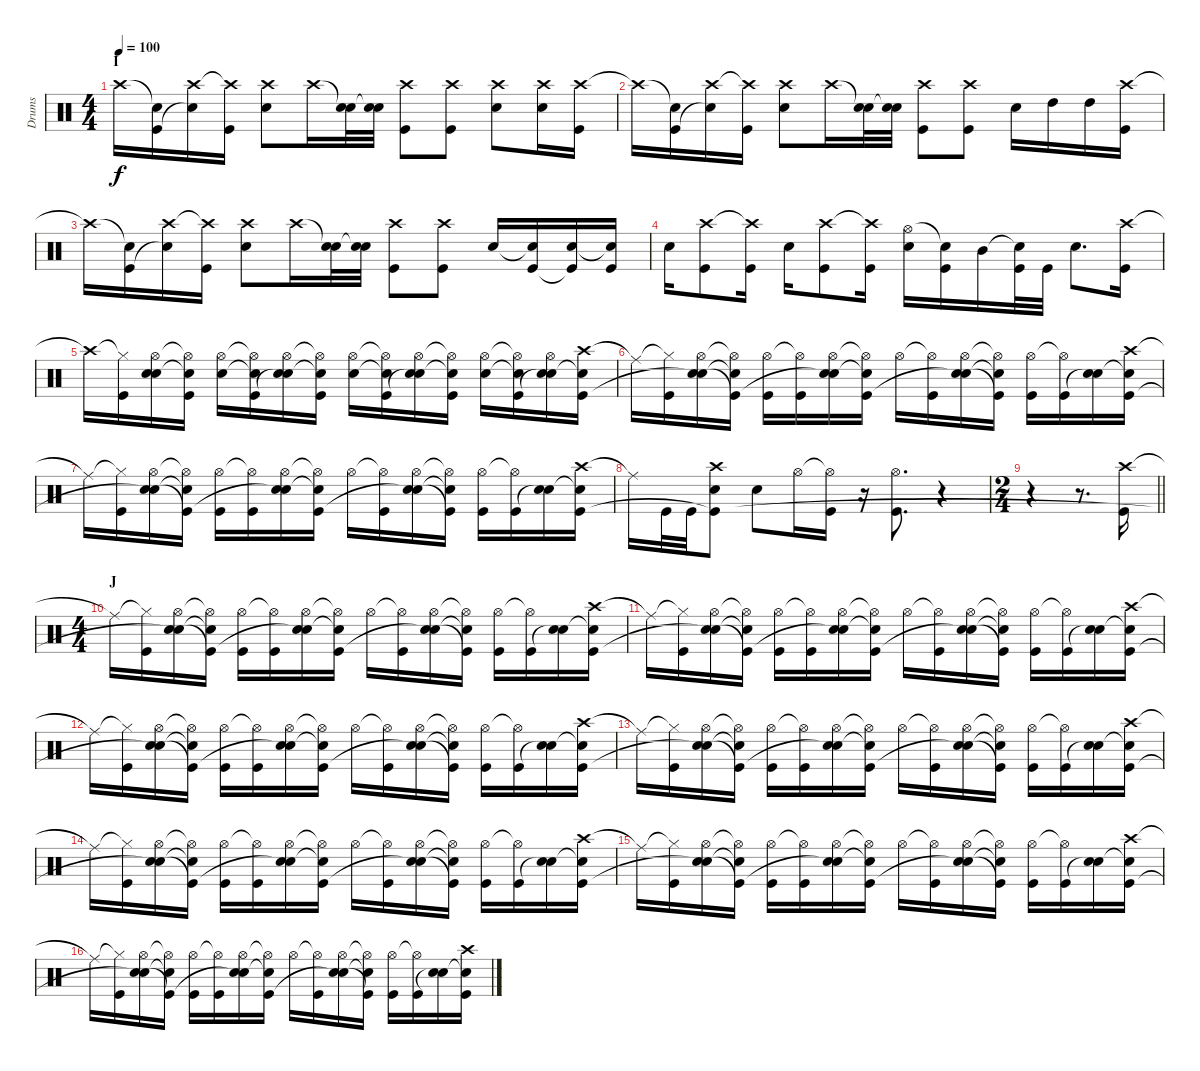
\track ("Drums" "Drums") {instrument percussion}
\staff {score}
\articulation defaults
\ts (4 4)
\section ("" "I")
\tempo 100
\clef neutral
\ks c "Crash high (hit)".16{dy f}
("Snare (hit)"{t} "Kick (hit)").16 ("Crash high (hit)" "Snare (hit)"{t}).16 ("Crash high (hit)"{t} "Kick (hit)").16 ("Crash high (hit)" "Snare (hit) 2").8 "Crash high (hit)".16 ("Snare (hit)"{t} "Snare (hit) 2").32 ("Snare (hit)"{t} "Snare (hit) 2").32 ("Crash high (hit)" "Kick (hit)").8 ("Crash high (hit)" "Kick (hit)").8 ("Crash high (hit)" "Snare (hit) 2").8 ("Crash high (hit)" "Snare (hit) 2").16 ("Crash high (hit)" "Kick (hit)").16 |
"Crash high (hit)"{t}.16 ("Snare (hit)"{t} "Kick (hit)").16 ("Crash high (hit)" "Snare (hit)"{t}).16 ("Crash high (hit)"{t} "Kick (hit)").16 ("Crash high (hit)" "Snare (hit) 2").8 "Crash high (hit)".16 ("Snare (hit)"{t} "Snare (hit) 2").32 ("Snare (hit)"{t} "Snare (hit) 2").32 ("Crash high (hit)" "Kick (hit)").8 ("Crash high (hit)" "Kick (hit)").8 "Snare (hit) 2".16 "High Tom (hit)".16 "High Tom (hit)".16 ("Crash high (hit)" "Kick (hit)").16 |
"Crash high (hit)"{t}.16 ("Snare (hit)"{t} "Kick (hit)").16 ("Crash high (hit)" "Snare (hit)"{t}).16 ("Crash high (hit)"{t} "Kick (hit)").16 ("Crash high (hit)" "Snare (hit) 2").8 "Crash high (hit)".16 ("Snare (hit)"{t} "Snare (hit) 2").32 ("Snare (hit)"{t} "Snare (hit) 2").32 ("Crash high (hit)" "Kick (hit)").8 ("Crash high (hit)" "Kick (hit)").8 "Snare (hit) 2".16 ("Snare (hit) 2"{t} "Kick (hit)").16 ("Snare (hit) 2" "Kick (hit)"{t}).16 ("Snare (hit) 2"{t} "Kick (hit)").16 |
"Snare (hit) 2".16 ("Crash high (hit)" "Kick (hit)").8 ("Crash high (hit)"{t} "Kick (hit)").16 "Snare (hit) 2".16 ("Crash high (hit)" "Kick (hit)").8 ("Crash high (hit)"{t} "Kick (hit)").16 ("Hi-Hat (open)" "Snare (hit) 2").16 ("Snare (hit)"{t} "Kick (hit)").16 "Mid Tom (hit)".16 ("Snare (hit)"{t} "Kick (hit)").32 "Kick (hit)".32 "Snare (hit) 2".8{d} ("Crash high (hit)" "Kick (hit)").16 |
"Crash high (hit)"{t}.16 ("Hi-Hat (closed)"{t} "Kick (hit)").16 ("Hi-Hat (open)" "Snare (hit) 2" "Snare (hit)").16 ("Hi-Hat (open)"{t} "Snare (hit) 2"{t} "Kick (hit)").16 ("Hi-Hat (open)" "Snare (hit) 2").16 ("Hi-Hat (open)"{t} "Snare (hit) 2"{t} "Kick (hit)").16 ("Hi-Hat (open)" "Snare (hit) 2" "Snare (hit)"{t}).16 ("Hi-Hat (open)"{t} "Snare (hit) 2"{t} "Kick (hit)").16 ("Hi-Hat (open)" "Snare (hit) 2").16 ("Hi-Hat (open)"{t} "Snare (hit) 2"{t} "Kick (hit)").16 ("Hi-Hat (open)" "Snare (hit) 2" "Snare (hit)"{t}).16 ("Hi-Hat (open)"{t} "Snare (hit) 2"{t} "Kick (hit)").16 ("Hi-Hat (open)" "Snare (hit) 2").16 ("Hi-Hat (open)"{t} "Snare (hit) 2"{t} "Kick (hit)").16 ("Hi-Hat (open)" "Snare (hit) 2" "Snare (hit)"{t}).16 ("Crash high (hit)" "Snare (hit) 2"{t} "Kick (hit)").16 |
"Ride (middle)"{t}.16 ("Hi-Hat (closed)"{t} "Kick (hit)").16 ("Hi-Hat (open)" "Snare (hit) 2" "Snare (hit)"{t}).16 ("Hi-Hat (open)"{t} "Snare (hit) 2"{t} "Kick (hit)"{t}).16 ("Hi-Hat (open)" "Kick (hit)").16 ("Hi-Hat (open)"{t} "Kick (hit)").16 ("Hi-Hat (open)" "Snare (hit) 2" "Snare (hit)"{t}).16 ("Hi-Hat (open)"{t} "Snare (hit) 2"{t} "Kick (hit)").16 "Hi-Hat (open)".16 ("Hi-Hat (open)"{t} "Kick (hit)").16 ("Hi-Hat (open)" "Snare (hit) 2" "Snare (hit)"{t}).16 ("Hi-Hat (open)"{t} "Snare (hit) 2"{t} "Kick (hit)"{t}).16 ("Hi-Hat (open)" "Kick (hit)").16 ("Hi-Hat (open)"{t} "Kick (hit)").16 ("Snare (hit) 2" "Snare (hit)"{t}).16 ("Crash high (hit)" "Snare (hit) 2"{t} "Kick (hit)").16 |
"Ride (middle)"{t}.16 ("Hi-Hat (closed)"{t} "Kick (hit)").16 ("Hi-Hat (open)" "Snare (hit) 2" "Snare (hit)"{t}).16 ("Hi-Hat (open)"{t} "Snare (hit) 2"{t} "Kick (hit)"{t}).16 ("Hi-Hat (open)" "Kick (hit)").16 ("Hi-Hat (open)"{t} "Kick (hit)").16 ("Hi-Hat (open)" "Snare (hit) 2" "Snare (hit)"{t}).16 ("Hi-Hat (open)"{t} "Snare (hit) 2"{t} "Kick (hit)").16 "Hi-Hat (open)".16 ("Hi-Hat (open)"{t} "Kick (hit)").16 ("Hi-Hat (open)" "Snare (hit) 2" "Snare (hit)"{t}).16 ("Hi-Hat (open)"{t} "Snare (hit) 2"{t} "Kick (hit)"{t}).16 ("Hi-Hat (open)" "Kick (hit)").16 ("Hi-Hat (open)"{t} "Kick (hit)").16 ("Snare (hit) 2" "Snare (hit)"{t}).16 ("Crash high (hit)" "Snare (hit) 2"{t} "Kick (hit)").16 |
"Ride (middle)"{t}.16 "Kick (hit)".32 "Kick (hit)".32 ("Crash high (hit)" "Snare (hit) 2" "Kick (hit)"{t}).8 "Snare (hit) 2".8 "Hi-Hat (open)".16 ("Hi-Hat (open)"{t} "Kick (hit)").16 r.16 ("Hi-Hat (open)" "Kick (hit)").8{d} r.4 |
\ts (2 4)
\barLineRight lightlight
r.4 r.8{d} ("Crash high (hit)" "Kick (hit)").16 |
\ts (4 4)
\section ("" "J")
"Ride (middle)"{t}.16 ("Hi-Hat (closed)"{t} "Kick (hit)").16 ("Hi-Hat (open)" "Snare (hit) 2" "Snare (hit)"{t}).16 ("Hi-Hat (open)"{t} "Snare (hit) 2"{t} "Kick (hit)"{t}).16 ("Hi-Hat (open)" "Kick (hit)").16 ("Hi-Hat (open)"{t} "Kick (hit)").16 ("Hi-Hat (open)" "Snare (hit) 2" "Snare (hit)"{t}).16 ("Hi-Hat (open)"{t} "Snare (hit) 2"{t} "Kick (hit)").16 "Hi-Hat (open)".16 ("Hi-Hat (open)"{t} "Kick (hit)").16 ("Hi-Hat (open)" "Snare (hit) 2" "Snare (hit)"{t}).16 ("Hi-Hat (open)"{t} "Snare (hit) 2"{t} "Kick (hit)"{t}).16 ("Hi-Hat (open)" "Kick (hit)").16 ("Hi-Hat (open)"{t} "Kick (hit)").16 ("Snare (hit) 2" "Snare (hit)"{t}).16 ("Crash high (hit)" "Snare (hit) 2"{t} "Kick (hit)").16 |
"Ride (middle)"{t}.16 ("Hi-Hat (closed)"{t} "Kick (hit)").16 ("Hi-Hat (open)" "Snare (hit) 2" "Snare (hit)"{t}).16 ("Hi-Hat (open)"{t} "Snare (hit) 2"{t} "Kick (hit)"{t}).16 ("Hi-Hat (open)" "Kick (hit)").16 ("Hi-Hat (open)"{t} "Kick (hit)").16 ("Hi-Hat (open)" "Snare (hit) 2" "Snare (hit)"{t}).16 ("Hi-Hat (open)"{t} "Snare (hit) 2"{t} "Kick (hit)").16 "Hi-Hat (open)".16 ("Hi-Hat (open)"{t} "Kick (hit)").16 ("Hi-Hat (open)" "Snare (hit) 2" "Snare (hit)"{t}).16 ("Hi-Hat (open)"{t} "Snare (hit) 2"{t} "Kick (hit)"{t}).16 ("Hi-Hat (open)" "Kick (hit)").16 ("Hi-Hat (open)"{t} "Kick (hit)").16 ("Snare (hit) 2" "Snare (hit)"{t}).16 ("Crash high (hit)" "Snare (hit) 2"{t} "Kick (hit)").16 |
"Ride (middle)"{t}.16 ("Hi-Hat (closed)"{t} "Kick (hit)").16 ("Hi-Hat (open)" "Snare (hit) 2" "Snare (hit)"{t}).16 ("Hi-Hat (open)"{t} "Snare (hit) 2"{t} "Kick (hit)"{t}).16 ("Hi-Hat (open)" "Kick (hit)").16 ("Hi-Hat (open)"{t} "Kick (hit)").16 ("Hi-Hat (open)" "Snare (hit) 2" "Snare (hit)"{t}).16 ("Hi-Hat (open)"{t} "Snare (hit) 2"{t} "Kick (hit)").16 "Hi-Hat (open)".16 ("Hi-Hat (open)"{t} "Kick (hit)").16 ("Hi-Hat (open)" "Snare (hit) 2" "Snare (hit)"{t}).16 ("Hi-Hat (open)"{t} "Snare (hit) 2"{t} "Kick (hit)"{t}).16 ("Hi-Hat (open)" "Kick (hit)").16 ("Hi-Hat (open)"{t} "Kick (hit)").16 ("Snare (hit) 2" "Snare (hit)"{t}).16 ("Crash high (hit)" "Snare (hit) 2"{t} "Kick (hit)").16 |
"Ride (middle)"{t}.16 ("Hi-Hat (closed)"{t} "Kick (hit)").16 ("Hi-Hat (open)" "Snare (hit) 2" "Snare (hit)"{t}).16 ("Hi-Hat (open)"{t} "Snare (hit) 2"{t} "Kick (hit)"{t}).16 ("Hi-Hat (open)" "Kick (hit)").16 ("Hi-Hat (open)"{t} "Kick (hit)").16 ("Hi-Hat (open)" "Snare (hit) 2" "Snare (hit)"{t}).16 ("Hi-Hat (open)"{t} "Snare (hit) 2"{t} "Kick (hit)").16 "Hi-Hat (open)".16 ("Hi-Hat (open)"{t} "Kick (hit)").16 ("Hi-Hat (open)" "Snare (hit) 2" "Snare (hit)"{t}).16 ("Hi-Hat (open)"{t} "Snare (hit) 2"{t} "Kick (hit)"{t}).16 ("Hi-Hat (open)" "Kick (hit)").16 ("Hi-Hat (open)"{t} "Kick (hit)").16 ("Snare (hit) 2" "Snare (hit)"{t}).16 ("Crash high (hit)" "Snare (hit) 2"{t} "Kick (hit)").16 |
"Ride (middle)"{t}.16 ("Hi-Hat (closed)"{t} "Kick (hit)").16 ("Hi-Hat (open)" "Snare (hit) 2" "Snare (hit)"{t}).16 ("Hi-Hat (open)"{t} "Snare (hit) 2"{t} "Kick (hit)"{t}).16 ("Hi-Hat (open)" "Kick (hit)").16 ("Hi-Hat (open)"{t} "Kick (hit)").16 ("Hi-Hat (open)" "Snare (hit) 2" "Snare (hit)"{t}).16 ("Hi-Hat (open)"{t} "Snare (hit) 2"{t} "Kick (hit)").16 "Hi-Hat (open)".16 ("Hi-Hat (open)"{t} "Kick (hit)").16 ("Hi-Hat (open)" "Snare (hit) 2" "Snare (hit)"{t}).16 ("Hi-Hat (open)"{t} "Snare (hit) 2"{t} "Kick (hit)"{t}).16 ("Hi-Hat (open)" "Kick (hit)").16 ("Hi-Hat (open)"{t} "Kick (hit)").16 ("Snare (hit) 2" "Snare (hit)"{t}).16 ("Crash high (hit)" "Snare (hit) 2"{t} "Kick (hit)").16 |
"Ride (middle)"{t}.16 ("Hi-Hat (closed)"{t} "Kick (hit)").16 ("Hi-Hat (open)" "Snare (hit) 2" "Snare (hit)"{t}).16 ("Hi-Hat (open)"{t} "Snare (hit) 2"{t} "Kick (hit)"{t}).16 ("Hi-Hat (open)" "Kick (hit)").16 ("Hi-Hat (open)"{t} "Kick (hit)").16 ("Hi-Hat (open)" "Snare (hit) 2" "Snare (hit)"{t}).16 ("Hi-Hat (open)"{t} "Snare (hit) 2"{t} "Kick (hit)").16 "Hi-Hat (open)".16 ("Hi-Hat (open)"{t} "Kick (hit)").16 ("Hi-Hat (open)" "Snare (hit) 2" "Snare (hit)"{t}).16 ("Hi-Hat (open)"{t} "Snare (hit) 2"{t} "Kick (hit)"{t}).16 ("Hi-Hat (open)" "Kick (hit)").16 ("Hi-Hat (open)"{t} "Kick (hit)").16 ("Snare (hit) 2" "Snare (hit)"{t}).16 ("Crash high (hit)" "Snare (hit) 2"{t} "Kick (hit)").16 |
"Ride (middle)"{t}.16 ("Hi-Hat (closed)"{t} "Kick (hit)").16 ("Hi-Hat (open)" "Snare (hit) 2" "Snare (hit)"{t}).16 ("Hi-Hat (open)"{t} "Snare (hit) 2"{t} "Kick (hit)"{t}).16 ("Hi-Hat (open)" "Kick (hit)").16 ("Hi-Hat (open)"{t} "Kick (hit)").16 ("Hi-Hat (open)" "Snare (hit) 2" "Snare (hit)"{t}).16 ("Hi-Hat (open)"{t} "Snare (hit) 2"{t} "Kick (hit)").16 "Hi-Hat (open)".16 ("Hi-Hat (open)"{t} "Kick (hit)").16 ("Hi-Hat (open)" "Snare (hit) 2" "Snare (hit)"{t}).16 ("Hi-Hat (open)"{t} "Snare (hit) 2"{t} "Kick (hit)"{t}).16 ("Hi-Hat (open)" "Kick (hit)").16 ("Hi-Hat (open)"{t} "Kick (hit)").16 ("Snare (hit) 2" "Snare (hit)"{t}).16 ("Crash high (hit)" "Snare (hit) 2"{t} "Kick (hit)").16
